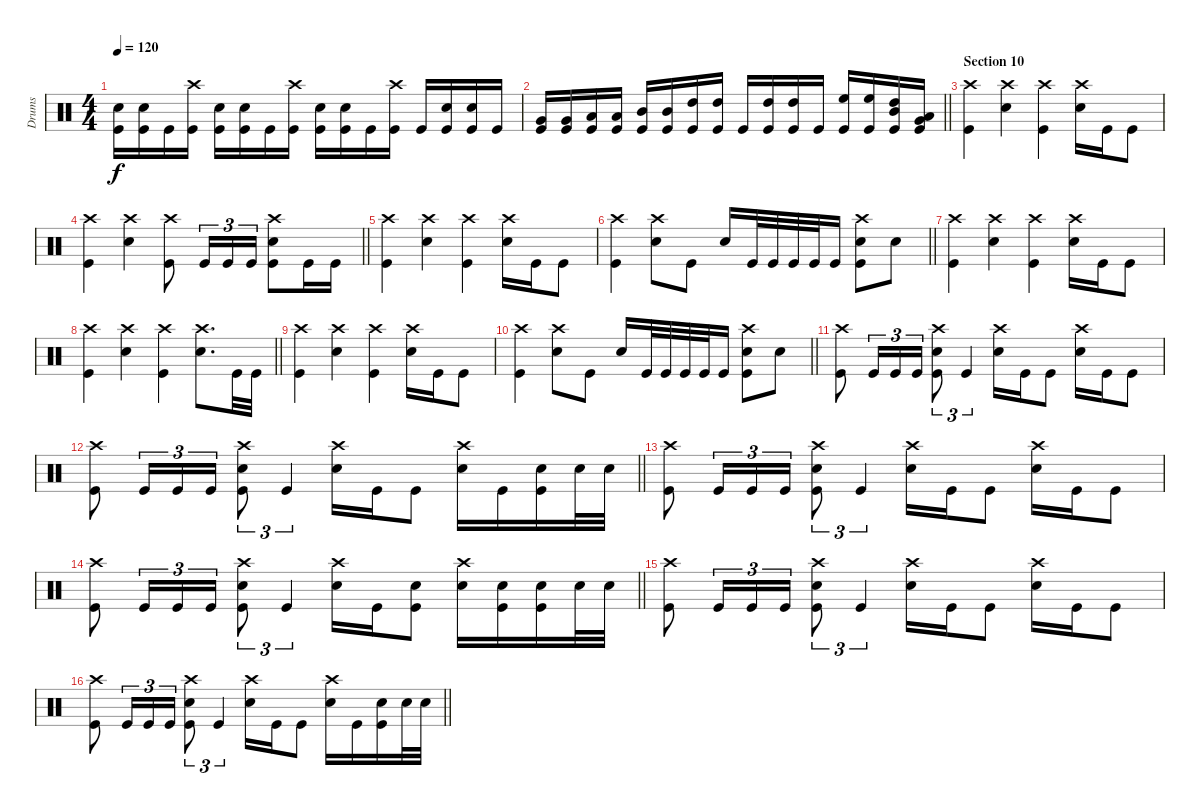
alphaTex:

\track ("Drums" "Drums") {instrument percussion}
\staff {score}
\articulation defaults
\ts (4 4)
\tempo 120
\clef neutral
\ks c
("Snare (hit) 2" "Kick (hit)").16{dy f} ("Snare (hit) 2" "Kick (hit)").16 "Kick (hit)".16 ("Crash high (hit)" "Kick (hit)").16 ("Snare (hit) 2" "Kick (hit)").16 ("Snare (hit) 2" "Kick (hit)").16 "Kick (hit)".16 ("Crash high (hit)" "Kick (hit)").16 ("Snare (hit) 2" "Kick (hit)").16 ("Snare (hit) 2" "Kick (hit)").16 "Kick (hit)".16 ("Crash high (hit)" "Kick (hit)").16 "Kick (hit)".16 ("Snare (hit) 2" "Kick (hit)").16 ("Snare (hit) 2" "Kick (hit)").16 "Kick (hit)".16 |
\barLineRight lightlight
("Very Low Tom (hit)" "Kick (hit)").16 ("Very Low Tom (hit)" "Kick (hit)").16 ("Low Tom (hit)" "Kick (hit)").16 ("Low Tom (hit)" "Kick (hit)").16 ("Mid Tom (hit)" "Kick (hit)").16 ("Mid Tom (hit)" "Kick (hit)").16 ("High Tom (hit)" "Kick (hit)").16 ("High Tom (hit)" "Kick (hit)").16 "Kick (hit)".16 ("High Tom (hit)" "Kick (hit)").16 ("High Tom (hit)" "Kick (hit)").16 "Kick (hit)".16 ("High Floor Tom (hit)" "Kick (hit)").16 ("High Floor Tom (hit)" "Kick (hit)").16 ("Mid Tom (hit)" "High Tom (hit)" "Kick (hit)").16 ("Low Tom (hit)" "Very Low Tom (hit)" "Kick (hit)").16 |
\section ("" "Section 10")
("Crash high (hit)" "Kick (hit)").4 ("Crash high (hit)" "Snare (hit) 2").4 ("Crash high (hit)" "Kick (hit)").4 ("Crash high (hit)" "Snare (hit) 2").16 "Kick (hit)".16 "Kick (hit)".8 |
\barLineRight lightlight
("Crash high (hit)" "Kick (hit)").4 ("Crash high (hit)" "Snare (hit) 2").4 ("Crash high (hit)" "Kick (hit)").8 "Kick (hit)".16{tu (3 2)} "Kick (hit)".16{tu (3 2)} "Kick (hit)".16{tu (3 2)} ("Crash high (hit)" "Snare (hit) 2" "Kick (hit)").8 "Kick (hit)".16 "Kick (hit)".16 |
("Crash high (hit)" "Kick (hit)").4 ("Crash high (hit)" "Snare (hit) 2").4 ("Crash high (hit)" "Kick (hit)").4 ("Crash high (hit)" "Snare (hit) 2").16 "Kick (hit)".16 "Kick (hit)".8 |
\barLineRight lightlight
("Crash high (hit)" "Kick (hit)").4 ("Crash high (hit)" "Snare (hit) 2").8 "Kick (hit)".8 "Snare (hit) 2".16 "Kick (hit)".32 "Kick (hit)".32 "Kick (hit)".32 "Kick (hit)".32 "Kick (hit)".16 ("Crash high (hit)" "Snare (hit) 2" "Kick (hit)").8 "Snare (hit) 2".8 |
("Crash high (hit)" "Kick (hit)").4 ("Crash high (hit)" "Snare (hit) 2").4 ("Crash high (hit)" "Kick (hit)").4 ("Crash high (hit)" "Snare (hit) 2").16 "Kick (hit)".16 "Kick (hit)".8 |
\barLineRight lightlight
("Crash high (hit)" "Kick (hit)").4 ("Crash high (hit)" "Snare (hit) 2").4 ("Crash high (hit)" "Kick (hit)").4 ("Crash high (hit)" "Snare (hit) 2").8{d} "Kick (hit)".32 "Kick (hit)".32 |
("Crash high (hit)" "Kick (hit)").4 ("Crash high (hit)" "Snare (hit) 2").4 ("Crash high (hit)" "Kick (hit)").4 ("Crash high (hit)" "Snare (hit) 2").16 "Kick (hit)".16 "Kick (hit)".8 |
\barLineRight lightlight
("Crash high (hit)" "Kick (hit)").4 ("Crash high (hit)" "Snare (hit) 2").8 "Kick (hit)".8 "Snare (hit) 2".16 "Kick (hit)".32 "Kick (hit)".32 "Kick (hit)".32 "Kick (hit)".32 "Kick (hit)".16 ("Crash high (hit)" "Snare (hit) 2" "Kick (hit)").8 "Snare (hit) 2".8 |
("Crash high (hit)" "Kick (hit)").8 "Kick (hit)".16{tu (3 2)} "Kick (hit)".16{tu (3 2)} "Kick (hit)".16{tu (3 2)} ("Crash high (hit)" "Snare (hit) 2" "Kick (hit)").8{tu (3 2)} "Kick (hit)".4{tu (3 2)} ("Crash high (hit)" "Snare (hit) 2").16 "Kick (hit)".16 "Kick (hit)".8 ("Crash high (hit)" "Snare (hit) 2").16 "Kick (hit)".16 "Kick (hit)".8 |
\barLineRight lightlight
("Crash high (hit)" "Kick (hit)").8 "Kick (hit)".16{tu (3 2)} "Kick (hit)".16{tu (3 2)} "Kick (hit)".16{tu (3 2)} ("Crash high (hit)" "Snare (hit) 2" "Kick (hit)").8{tu (3 2)} "Kick (hit)".4{tu (3 2)} ("Crash high (hit)" "Snare (hit) 2").16 "Kick (hit)".16 "Kick (hit)".8 ("Crash high (hit)" "Snare (hit) 2").16 "Kick (hit)".16 ("Snare (hit) 2" "Kick (hit)").16 "Snare (hit) 2".32 "Snare (hit) 2".32 |
("Crash high (hit)" "Kick (hit)").8 "Kick (hit)".16{tu (3 2)} "Kick (hit)".16{tu (3 2)} "Kick (hit)".16{tu (3 2)} ("Crash high (hit)" "Snare (hit) 2" "Kick (hit)").8{tu (3 2)} "Kick (hit)".4{tu (3 2)} ("Crash high (hit)" "Snare (hit) 2").16 "Kick (hit)".16 "Kick (hit)".8 ("Crash high (hit)" "Snare (hit) 2").16 "Kick (hit)".16 "Kick (hit)".8 |
\barLineRight lightlight
("Crash high (hit)" "Kick (hit)").8 "Kick (hit)".16{tu (3 2)} "Kick (hit)".16{tu (3 2)} "Kick (hit)".16{tu (3 2)} ("Crash high (hit)" "Snare (hit) 2" "Kick (hit)").8{tu (3 2)} "Kick (hit)".4{tu (3 2)} ("Crash high (hit)" "Snare (hit) 2").16 "Kick (hit)".16 ("Snare (hit) 2" "Kick (hit)").8 ("Crash high (hit)" "Snare (hit) 2").16 ("Snare (hit) 2" "Kick (hit)").16 ("Snare (hit) 2" "Kick (hit)").16 "Snare (hit) 2".32 "Snare (hit) 2".32 |
("Crash high (hit)" "Kick (hit)").8 "Kick (hit)".16{tu (3 2)} "Kick (hit)".16{tu (3 2)} "Kick (hit)".16{tu (3 2)} ("Crash high (hit)" "Snare (hit) 2" "Kick (hit)").8{tu (3 2)} "Kick (hit)".4{tu (3 2)} ("Crash high (hit)" "Snare (hit) 2").16 "Kick (hit)".16 "Kick (hit)".8 ("Crash high (hit)" "Snare (hit) 2").16 "Kick (hit)".16 "Kick (hit)".8 |
\barLineRight lightlight
("Crash high (hit)" "Kick (hit)").8 "Kick (hit)".16{tu (3 2)} "Kick (hit)".16{tu (3 2)} "Kick (hit)".16{tu (3 2)} ("Crash high (hit)" "Snare (hit) 2" "Kick (hit)").8{tu (3 2)} "Kick (hit)".4{tu (3 2)} ("Crash high (hit)" "Snare (hit) 2").16 "Kick (hit)".16 "Kick (hit)".8 ("Crash high (hit)" "Snare (hit) 2").16 "Kick (hit)".16 ("Snare (hit) 2" "Kick (hit)").16 "Snare (hit) 2".32 "Snare (hit) 2".32
